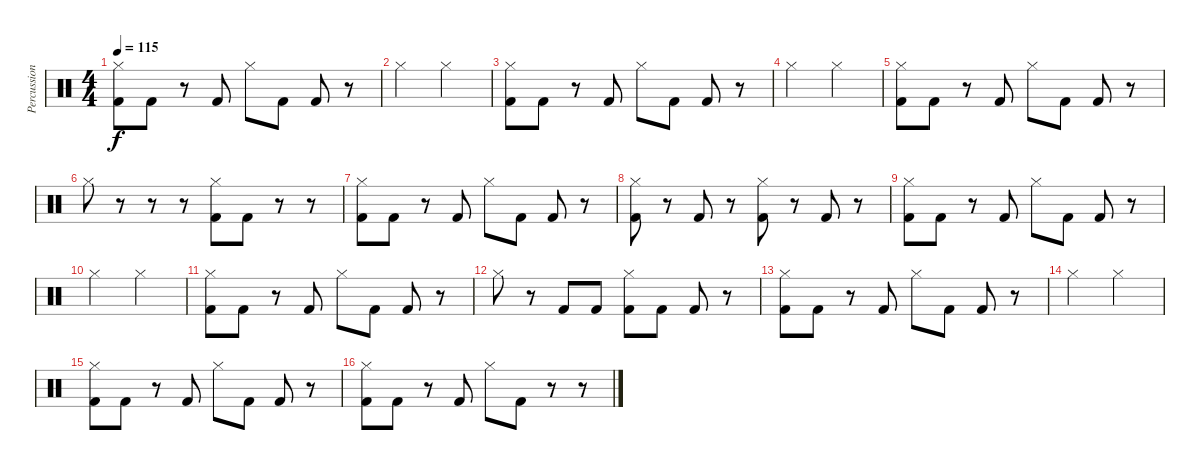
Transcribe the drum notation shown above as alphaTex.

\track ("Percussions" "Percussion") {instrument percussion}
\staff {score}
\articulation defaults
\ts (4 4)
\tempo 115
\clef neutral
\ks c
("Hi-Hat (closed)" "Kick (hit) 2").8{dy f} "Kick (hit) 2".8 r.8 "Kick (hit) 2".8 "Hi-Hat (closed)".8 "Kick (hit) 2".8 "Kick (hit) 2".8 r.8 |
"Hi-Hat (closed)".2 "Hi-Hat (closed)".2 |
("Hi-Hat (closed)" "Kick (hit) 2").8 "Kick (hit) 2".8 r.8 "Kick (hit) 2".8 "Hi-Hat (closed)".8 "Kick (hit) 2".8 "Kick (hit) 2".8 r.8 |
"Hi-Hat (closed)".2 "Hi-Hat (closed)".2 |
("Hi-Hat (closed)" "Kick (hit) 2").8 "Kick (hit) 2".8 r.8 "Kick (hit) 2".8 "Hi-Hat (closed)".8 "Kick (hit) 2".8 "Kick (hit) 2".8 r.8 |
"Hi-Hat (closed)".8 r.8 r.8 r.8 ("Hi-Hat (closed)" "Kick (hit) 2").8 "Kick (hit) 2".8 r.8 r.8 |
("Hi-Hat (closed)" "Kick (hit) 2").8 "Kick (hit) 2".8 r.8 "Kick (hit) 2".8 "Hi-Hat (closed)".8 "Kick (hit) 2".8 "Kick (hit) 2".8 r.8 |
("Hi-Hat (closed)" "Kick (hit) 2").8 r.8 "Kick (hit) 2".8 r.8 ("Hi-Hat (closed)" "Kick (hit) 2").8 r.8 "Kick (hit) 2".8 r.8 |
("Hi-Hat (closed)" "Kick (hit) 2").8 "Kick (hit) 2".8 r.8 "Kick (hit) 2".8 "Hi-Hat (closed)".8 "Kick (hit) 2".8 "Kick (hit) 2".8 r.8 |
"Hi-Hat (closed)".2 "Hi-Hat (closed)".2 |
("Hi-Hat (closed)" "Kick (hit) 2").8 "Kick (hit) 2".8 r.8 "Kick (hit) 2".8 "Hi-Hat (closed)".8 "Kick (hit) 2".8 "Kick (hit) 2".8 r.8 |
"Hi-Hat (closed)".8 r.8 "Kick (hit) 2".8 "Kick (hit) 2".8 ("Hi-Hat (closed)" "Kick (hit) 2").8 "Kick (hit) 2".8 "Kick (hit) 2".8 r.8 |
("Hi-Hat (closed)" "Kick (hit) 2").8 "Kick (hit) 2".8 r.8 "Kick (hit) 2".8 "Hi-Hat (closed)".8 "Kick (hit) 2".8 "Kick (hit) 2".8 r.8 |
"Hi-Hat (closed)".2 "Hi-Hat (closed)".2 |
("Hi-Hat (closed)" "Kick (hit) 2").8 "Kick (hit) 2".8 r.8 "Kick (hit) 2".8 "Hi-Hat (closed)".8 "Kick (hit) 2".8 "Kick (hit) 2".8 r.8 |
("Hi-Hat (closed)" "Kick (hit) 2").8 "Kick (hit) 2".8 r.8 "Kick (hit) 2".8 "Hi-Hat (closed)".8 "Kick (hit) 2".8 r.8 r.8
